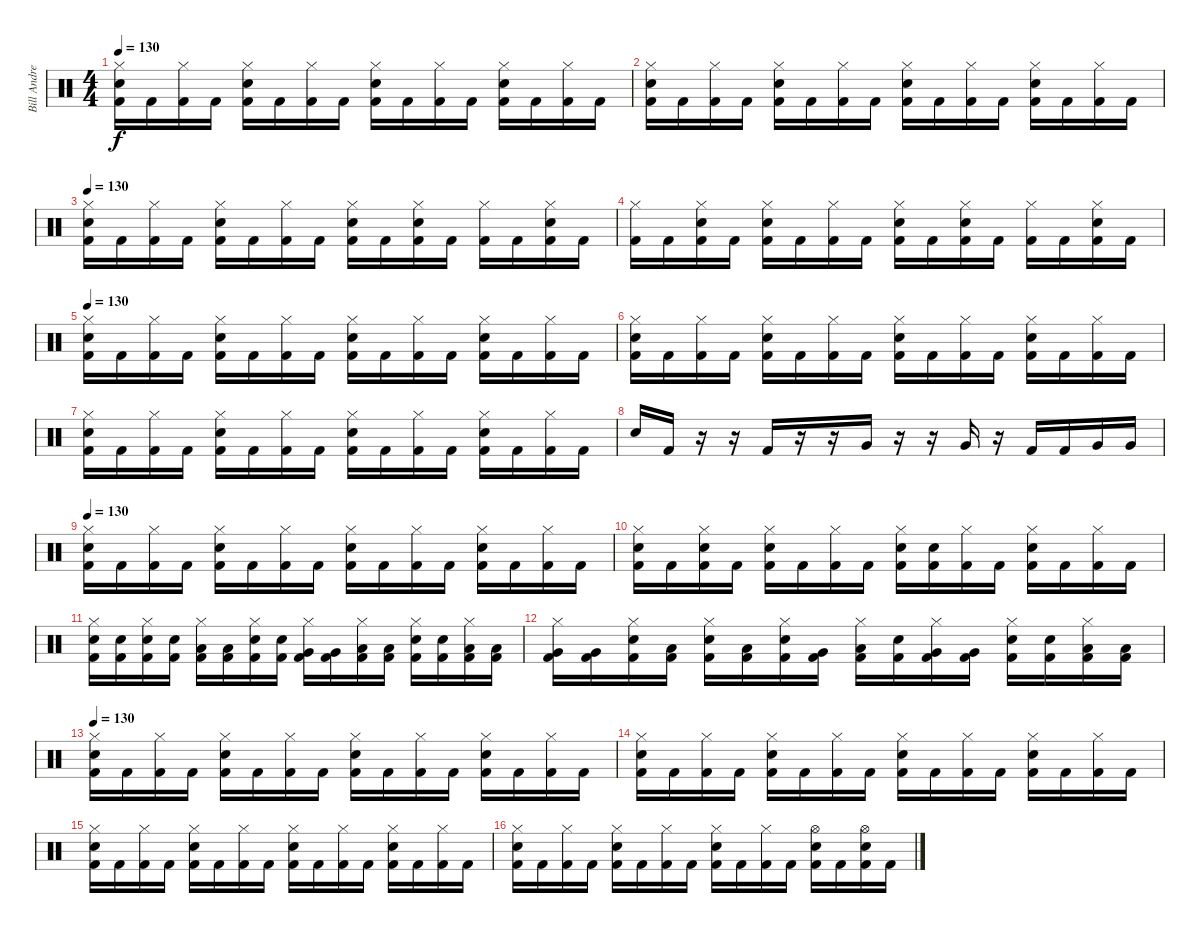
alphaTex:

\track ("Bill Andrews" "Bill Andre") {instrument percussion}
\staff {score}
\articulation defaults
\ts (4 4)
\tempo 130
\clef neutral
\ks c
("Hi-Hat (closed)" "Snare (hit) 2" "Kick (hit) 2").16{dy f} "Kick (hit) 2".16 ("Hi-Hat (closed)" "Kick (hit) 2").16 "Kick (hit) 2".16 ("Hi-Hat (closed)" "Snare (hit) 2" "Kick (hit) 2").16 "Kick (hit) 2".16 ("Hi-Hat (closed)" "Kick (hit) 2").16 "Kick (hit) 2".16 ("Hi-Hat (closed)" "Snare (hit) 2" "Kick (hit) 2").16 "Kick (hit) 2".16 ("Hi-Hat (closed)" "Kick (hit) 2").16 "Kick (hit) 2".16 ("Hi-Hat (closed)" "Snare (hit) 2" "Kick (hit) 2").16 "Kick (hit) 2".16 ("Hi-Hat (closed)" "Kick (hit) 2").16 "Kick (hit) 2".16 |
("Hi-Hat (closed)" "Snare (hit) 2" "Kick (hit) 2").16 "Kick (hit) 2".16 ("Hi-Hat (closed)" "Kick (hit) 2").16 "Kick (hit) 2".16 ("Hi-Hat (closed)" "Snare (hit) 2" "Kick (hit) 2").16 "Kick (hit) 2".16 ("Hi-Hat (closed)" "Kick (hit) 2").16 "Kick (hit) 2".16 ("Hi-Hat (closed)" "Snare (hit) 2" "Kick (hit) 2").16 "Kick (hit) 2".16 ("Hi-Hat (closed)" "Kick (hit) 2").16 "Kick (hit) 2".16 ("Hi-Hat (closed)" "Snare (hit) 2" "Kick (hit) 2").16 "Kick (hit) 2".16 ("Hi-Hat (closed)" "Kick (hit) 2").16 "Kick (hit) 2".16 |
\tempo 130
("Hi-Hat (closed)" "Snare (hit) 2" "Kick (hit) 2").16 "Kick (hit) 2".16 ("Hi-Hat (closed)" "Kick (hit) 2").16 "Kick (hit) 2".16 ("Hi-Hat (closed)" "Snare (hit) 2" "Kick (hit) 2").16 "Kick (hit) 2".16 ("Hi-Hat (closed)" "Kick (hit) 2").16 "Kick (hit) 2".16 ("Hi-Hat (closed)" "Snare (hit) 2" "Kick (hit) 2").16 "Kick (hit) 2".16 ("Hi-Hat (closed)" "Snare (hit) 2" "Kick (hit) 2").16 "Kick (hit) 2".16 ("Hi-Hat (closed)" "Kick (hit) 2").16 "Kick (hit) 2".16 ("Hi-Hat (closed)" "Snare (hit) 2" "Kick (hit) 2").16 "Kick (hit) 2".16 |
("Hi-Hat (closed)" "Kick (hit) 2").16 "Kick (hit) 2".16 ("Hi-Hat (closed)" "Snare (hit) 2" "Kick (hit) 2").16 "Kick (hit) 2".16 ("Hi-Hat (closed)" "Snare (hit) 2" "Kick (hit) 2").16 "Kick (hit) 2".16 ("Hi-Hat (closed)" "Kick (hit) 2").16 "Kick (hit) 2".16 ("Hi-Hat (closed)" "Snare (hit) 2" "Kick (hit) 2").16 "Kick (hit) 2".16 ("Hi-Hat (closed)" "Snare (hit) 2" "Kick (hit) 2").16 "Kick (hit) 2".16 ("Hi-Hat (closed)" "Kick (hit) 2").16 "Kick (hit) 2".16 ("Hi-Hat (closed)" "Snare (hit) 2" "Kick (hit) 2").16 "Kick (hit) 2".16 |
\tempo 130
("Hi-Hat (closed)" "Snare (hit) 2" "Kick (hit) 2").16 "Kick (hit) 2".16 ("Hi-Hat (closed)" "Kick (hit) 2").16 "Kick (hit) 2".16 ("Hi-Hat (closed)" "Snare (hit) 2" "Kick (hit) 2").16 "Kick (hit) 2".16 ("Hi-Hat (closed)" "Kick (hit) 2").16 "Kick (hit) 2".16 ("Hi-Hat (closed)" "Snare (hit) 2" "Kick (hit) 2").16 "Kick (hit) 2".16 ("Hi-Hat (closed)" "Kick (hit) 2").16 "Kick (hit) 2".16 ("Hi-Hat (closed)" "Snare (hit) 2" "Kick (hit) 2").16 "Kick (hit) 2".16 ("Hi-Hat (closed)" "Kick (hit) 2").16 "Kick (hit) 2".16 |
("Hi-Hat (closed)" "Snare (hit) 2" "Kick (hit) 2").16 "Kick (hit) 2".16 ("Hi-Hat (closed)" "Kick (hit) 2").16 "Kick (hit) 2".16 ("Hi-Hat (closed)" "Snare (hit) 2" "Kick (hit) 2").16 "Kick (hit) 2".16 ("Hi-Hat (closed)" "Kick (hit) 2").16 "Kick (hit) 2".16 ("Hi-Hat (closed)" "Snare (hit) 2" "Kick (hit) 2").16 "Kick (hit) 2".16 ("Hi-Hat (closed)" "Kick (hit) 2").16 "Kick (hit) 2".16 ("Hi-Hat (closed)" "Snare (hit) 2" "Kick (hit) 2").16 "Kick (hit) 2".16 ("Hi-Hat (closed)" "Kick (hit) 2").16 "Kick (hit) 2".16 |
("Hi-Hat (closed)" "Snare (hit) 2" "Kick (hit) 2").16 "Kick (hit) 2".16 ("Hi-Hat (closed)" "Kick (hit) 2").16 "Kick (hit) 2".16 ("Hi-Hat (closed)" "Snare (hit) 2" "Kick (hit) 2").16 "Kick (hit) 2".16 ("Hi-Hat (closed)" "Kick (hit) 2").16 "Kick (hit) 2".16 ("Hi-Hat (closed)" "Snare (hit) 2" "Kick (hit) 2").16 "Kick (hit) 2".16 ("Hi-Hat (closed)" "Kick (hit) 2").16 "Kick (hit) 2".16 ("Hi-Hat (closed)" "Snare (hit) 2" "Kick (hit) 2").16 "Kick (hit) 2".16 ("Hi-Hat (closed)" "Kick (hit) 2").16 "Kick (hit) 2".16 |
"Snare (hit) 2".16 "Kick (hit) 2".16 r.16 r.16 "Kick (hit) 2".16 r.16 r.16 "Very Low Tom (hit)".16 r.16 r.16 "Very Low Tom (hit)".16 r.16 "Kick (hit) 2".16 "Kick (hit) 2".16 "Very Low Tom (hit)".16 "Very Low Tom (hit)".16 |
\tempo 130
("Hi-Hat (closed)" "Snare (hit) 2" "Kick (hit) 2").16 "Kick (hit) 2".16 ("Hi-Hat (closed)" "Kick (hit) 2").16 "Kick (hit) 2".16 ("Hi-Hat (closed)" "Snare (hit) 2" "Kick (hit) 2").16 "Kick (hit) 2".16 ("Hi-Hat (closed)" "Kick (hit) 2").16 "Kick (hit) 2".16 ("Hi-Hat (closed)" "Snare (hit) 2" "Kick (hit) 2").16 "Kick (hit) 2".16 ("Hi-Hat (closed)" "Kick (hit) 2").16 "Kick (hit) 2".16 ("Hi-Hat (closed)" "Snare (hit) 2" "Kick (hit) 2").16 "Kick (hit) 2".16 ("Hi-Hat (closed)" "Kick (hit) 2").16 "Kick (hit) 2".16 |
("Hi-Hat (closed)" "Snare (hit) 2" "Kick (hit) 2").16 "Kick (hit) 2".16 ("Hi-Hat (closed)" "Snare (hit) 2" "Kick (hit) 2").16 "Kick (hit) 2".16 ("Hi-Hat (closed)" "Snare (hit) 2" "Kick (hit) 2").16 "Kick (hit) 2".16 ("Hi-Hat (closed)" "Kick (hit) 2").16 "Kick (hit) 2".16 ("Hi-Hat (closed)" "Snare (hit) 2" "Kick (hit) 2").16 ("Snare (hit) 2" "Kick (hit) 2").16 ("Hi-Hat (closed)" "Kick (hit) 2").16 "Kick (hit) 2".16 ("Hi-Hat (closed)" "Snare (hit) 2" "Kick (hit) 2").16 "Kick (hit) 2".16 ("Hi-Hat (closed)" "Kick (hit) 2").16 "Kick (hit) 2".16 |
("Hi-Hat (closed)" "Snare (hit) 2" "Kick (hit) 2").16 ("Snare (hit) 2" "Kick (hit) 2").16 ("Hi-Hat (closed)" "Snare (hit) 2" "Kick (hit) 2").16 ("Snare (hit) 2" "Kick (hit) 2").16 ("Hi-Hat (closed)" "Low Tom (hit)" "Kick (hit) 2").16 ("Low Tom (hit)" "Kick (hit) 2").16 ("Hi-Hat (closed)" "Snare (hit) 2" "Kick (hit) 2").16 ("Snare (hit) 2" "Kick (hit) 2").16 ("Hi-Hat (closed)" "Very Low Tom (hit)" "Kick (hit) 2").16 ("Very Low Tom (hit)" "Kick (hit) 2").16 ("Hi-Hat (closed)" "Low Floor Tom (hit)" "Kick (hit) 2").16 ("Low Floor Tom (hit)" "Kick (hit) 2").16 ("Hi-Hat (closed)" "Snare (hit) 2" "Kick (hit) 2").16 ("Snare (hit) 2" "Kick (hit) 2").16 ("Hi-Hat (closed)" "Low Floor Tom (hit)" "Kick (hit) 2").16 ("Low Floor Tom (hit)" "Kick (hit) 2").16 |
("Hi-Hat (closed)" "Very Low Tom (hit)" "Kick (hit) 2").16 ("Very Low Tom (hit)" "Kick (hit) 2").16 ("Hi-Hat (closed)" "Snare (hit) 2" "Kick (hit) 2").16 ("Low Tom (hit)" "Kick (hit) 2").16 ("Hi-Hat (closed)" "Snare (hit) 2" "Kick (hit) 2").16 ("Low Floor Tom (hit)" "Kick (hit) 2").16 ("Hi-Hat (closed)" "Snare (hit) 2" "Kick (hit) 2").16 ("Very Low Tom (hit)" "Kick (hit) 2").16 ("Hi-Hat (closed)" "Low Tom (hit)" "Kick (hit) 2").16 ("Snare (hit) 2" "Kick (hit) 2").16 ("Hi-Hat (closed)" "Very Low Tom (hit)" "Kick (hit) 2").16 ("Very Low Tom (hit)" "Kick (hit) 2").16 ("Hi-Hat (closed)" "Snare (hit) 2" "Kick (hit) 2").16 ("Snare (hit) 2" "Kick (hit) 2").16 ("Hi-Hat (closed)" "Low Floor Tom (hit)" "Kick (hit) 2").16 ("Low Floor Tom (hit)" "Kick (hit) 2").16 |
\tempo 130
("Hi-Hat (closed)" "Snare (hit) 2" "Kick (hit) 2").16 "Kick (hit) 2".16 ("Hi-Hat (closed)" "Kick (hit) 2").16 "Kick (hit) 2".16 ("Hi-Hat (closed)" "Snare (hit) 2" "Kick (hit) 2").16 "Kick (hit) 2".16 ("Hi-Hat (closed)" "Kick (hit) 2").16 "Kick (hit) 2".16 ("Hi-Hat (closed)" "Snare (hit) 2" "Kick (hit) 2").16 "Kick (hit) 2".16 ("Hi-Hat (closed)" "Kick (hit) 2").16 "Kick (hit) 2".16 ("Hi-Hat (closed)" "Snare (hit) 2" "Kick (hit) 2").16 "Kick (hit) 2".16 ("Hi-Hat (closed)" "Kick (hit) 2").16 "Kick (hit) 2".16 |
("Hi-Hat (closed)" "Snare (hit) 2" "Kick (hit) 2").16 "Kick (hit) 2".16 ("Hi-Hat (closed)" "Kick (hit) 2").16 "Kick (hit) 2".16 ("Hi-Hat (closed)" "Snare (hit) 2" "Kick (hit) 2").16 "Kick (hit) 2".16 ("Hi-Hat (closed)" "Kick (hit) 2").16 "Kick (hit) 2".16 ("Hi-Hat (closed)" "Snare (hit) 2" "Kick (hit) 2").16 "Kick (hit) 2".16 ("Hi-Hat (closed)" "Kick (hit) 2").16 "Kick (hit) 2".16 ("Hi-Hat (closed)" "Snare (hit) 2" "Kick (hit) 2").16 "Kick (hit) 2".16 ("Hi-Hat (closed)" "Kick (hit) 2").16 "Kick (hit) 2".16 |
("Hi-Hat (closed)" "Snare (hit) 2" "Kick (hit) 2").16 "Kick (hit) 2".16 ("Hi-Hat (closed)" "Kick (hit) 2").16 "Kick (hit) 2".16 ("Hi-Hat (closed)" "Snare (hit) 2" "Kick (hit) 2").16 "Kick (hit) 2".16 ("Hi-Hat (closed)" "Kick (hit) 2").16 "Kick (hit) 2".16 ("Hi-Hat (closed)" "Snare (hit) 2" "Kick (hit) 2").16 "Kick (hit) 2".16 ("Hi-Hat (closed)" "Kick (hit) 2").16 "Kick (hit) 2".16 ("Hi-Hat (closed)" "Snare (hit) 2" "Kick (hit) 2").16 "Kick (hit) 2".16 ("Hi-Hat (closed)" "Kick (hit) 2").16 "Kick (hit) 2".16 |
("Hi-Hat (closed)" "Snare (hit) 2" "Kick (hit) 2").16 "Kick (hit) 2".16 ("Hi-Hat (closed)" "Kick (hit) 2").16 "Kick (hit) 2".16 ("Hi-Hat (closed)" "Snare (hit) 2" "Kick (hit) 2").16 "Kick (hit) 2".16 ("Hi-Hat (closed)" "Kick (hit) 2").16 "Kick (hit) 2".16 ("Hi-Hat (closed)" "Snare (hit) 2" "Kick (hit) 2").16 "Kick (hit) 2".16 ("Hi-Hat (closed)" "Kick (hit) 2").16 "Kick (hit) 2".16 ("Hi-Hat (open)" "Snare (hit) 2" "Kick (hit) 2").16 "Kick (hit) 2".16 ("Hi-Hat (open)" "Snare (hit) 2" "Kick (hit) 2").16 "Kick (hit) 2".16
